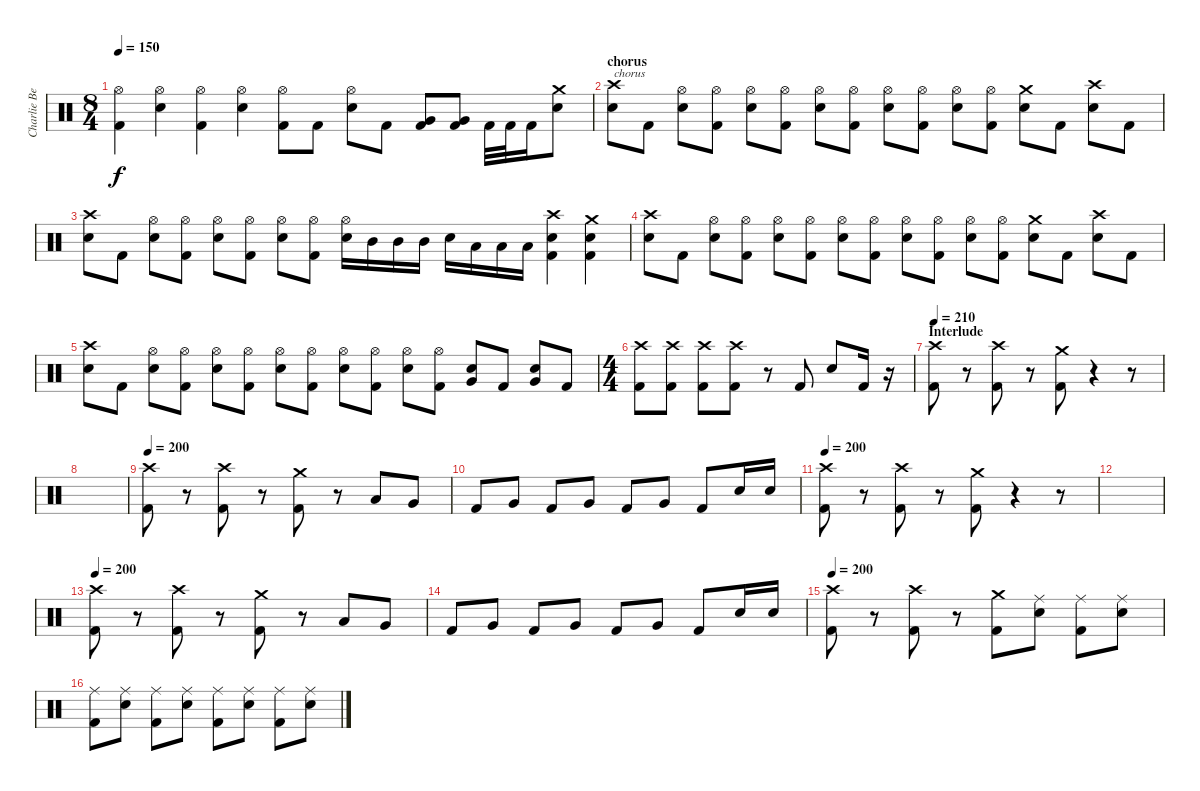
\track ("Charlie Benante" "Charlie Be") {instrument percussion}
\staff {score}
\articulation defaults
\ts (8 4)
\tempo 150
\clef neutral
\ks c
("Hi-Hat (open)" "Kick (hit) 2").4{dy f} ("Hi-Hat (open)" "Electric Snare (hit)").4 ("Hi-Hat (open)" "Kick (hit) 2").4 ("Hi-Hat (open)" "Electric Snare (hit)").4 ("Hi-Hat (open)" "Kick (hit) 2").8 "Kick (hit) 2".8 ("Hi-Hat (open)" "Electric Snare (hit)").8 "Kick (hit) 2".8 ("Very Low Tom (hit)" "Kick (hit) 2").8 ("Very Low Tom (hit)" "Kick (hit) 2").8 "Kick (hit) 2".32 "Kick (hit) 2".32 "Kick (hit) 2".16 ("Crash medium (hit)" "Electric Snare (hit)").8 |
\section ("" "chorus")
("Crash high (hit)" "Electric Snare (hit)").8{txt "chorus"} "Kick (hit) 2".8 ("Hi-Hat (open)" "Electric Snare (hit)").8 ("Hi-Hat (open)" "Kick (hit) 2").8 ("Hi-Hat (open)" "Electric Snare (hit)").8 ("Hi-Hat (open)" "Kick (hit) 2").8 ("Hi-Hat (open)" "Electric Snare (hit)").8 ("Hi-Hat (open)" "Kick (hit) 2").8 ("Hi-Hat (open)" "Electric Snare (hit)").8 ("Hi-Hat (open)" "Kick (hit) 2").8 ("Hi-Hat (open)" "Electric Snare (hit)").8 ("Hi-Hat (open)" "Kick (hit) 2").8 ("Crash medium (hit)" "Electric Snare (hit)").8 "Kick (hit) 2".8 ("Crash high (hit)" "Electric Snare (hit)").8 "Kick (hit) 2".8 |
("Crash high (hit)" "Electric Snare (hit)").8 "Kick (hit) 2".8 ("Hi-Hat (open)" "Electric Snare (hit)").8 ("Hi-Hat (open)" "Kick (hit) 2").8 ("Hi-Hat (open)" "Electric Snare (hit)").8 ("Hi-Hat (open)" "Kick (hit) 2").8 ("Hi-Hat (open)" "Electric Snare (hit)").8 ("Hi-Hat (open)" "Kick (hit) 2").8 ("Hi-Hat (open)" "Electric Snare (hit)").16 "Mid Tom (hit)".16 "Mid Tom (hit)".16 "Mid Tom (hit)".16 "Electric Snare (hit)".16 "Low Tom (hit)".16 "Low Tom (hit)".16 "Low Tom (hit)".16 ("Crash high (hit)" "Electric Snare (hit)" "Kick (hit) 2").4 ("Crash medium (hit)" "Electric Snare (hit)" "Kick (hit) 2").4 |
("Crash high (hit)" "Electric Snare (hit)").8 "Kick (hit) 2".8 ("Hi-Hat (open)" "Electric Snare (hit)").8 ("Hi-Hat (open)" "Kick (hit) 2").8 ("Hi-Hat (open)" "Electric Snare (hit)").8 ("Hi-Hat (open)" "Kick (hit) 2").8 ("Hi-Hat (open)" "Electric Snare (hit)").8 ("Hi-Hat (open)" "Kick (hit) 2").8 ("Hi-Hat (open)" "Electric Snare (hit)").8 ("Hi-Hat (open)" "Kick (hit) 2").8 ("Hi-Hat (open)" "Electric Snare (hit)").8 ("Hi-Hat (open)" "Kick (hit) 2").8 ("Crash medium (hit)" "Electric Snare (hit)").8 "Kick (hit) 2".8 ("Crash high (hit)" "Electric Snare (hit)").8 "Kick (hit) 2".8 |
("Crash high (hit)" "Electric Snare (hit)").8 "Kick (hit) 2".8 ("Hi-Hat (open)" "Electric Snare (hit)").8 ("Hi-Hat (open)" "Kick (hit) 2").8 ("Hi-Hat (open)" "Electric Snare (hit)").8 ("Hi-Hat (open)" "Kick (hit) 2").8 ("Hi-Hat (open)" "Electric Snare (hit)").8 ("Hi-Hat (open)" "Kick (hit) 2").8 ("Hi-Hat (open)" "Electric Snare (hit)").8 ("Hi-Hat (open)" "Kick (hit) 2").8 ("Hi-Hat (open)" "Electric Snare (hit)").8 ("Hi-Hat (open)" "Kick (hit) 2").8 ("Very Low Tom (hit)" "Electric Snare (hit)").8 "Kick (hit) 2".8 ("Very Low Tom (hit)" "Electric Snare (hit)").8 "Kick (hit) 2".8 |
\ts (4 4)
("Crash high (hit)" "Kick (hit) 2").8 ("Crash high (hit)" "Kick (hit) 2").8 ("Crash high (hit)" "Kick (hit) 2").8 ("Crash high (hit)" "Kick (hit) 2").8 r.8 "Kick (hit) 2".8 "Electric Snare (hit)".8 "Kick (hit) 2".16 r.16 |
\section ("" "Interlude")
\tempo 200
\tempo 210
("Crash high (hit)" "Kick (hit) 2").8 r.8 ("Crash high (hit)" "Kick (hit) 2").8 r.8 ("Crash medium (hit)" "Kick (hit) 2").8 r.4 r.8 |
|
\tempo 200
("Crash high (hit)" "Kick (hit) 2").8 r.8 ("Crash high (hit)" "Kick (hit) 2").8 r.8 ("Crash medium (hit)" "Kick (hit) 2").8 r.8 "Low Tom (hit)".8 "Very Low Tom (hit)".8 |
"Kick (hit) 2".8 "Very Low Tom (hit)".8 "Kick (hit) 2".8 "Very Low Tom (hit)".8 "Kick (hit) 2".8 "Very Low Tom (hit)".8 "Kick (hit) 2".8 "Electric Snare (hit)".16 "Electric Snare (hit)".16 |
\tempo 200
("Crash high (hit)" "Kick (hit) 2").8 r.8 ("Crash high (hit)" "Kick (hit) 2").8 r.8 ("Crash medium (hit)" "Kick (hit) 2").8 r.4 r.8 |
|
\tempo 200
("Crash high (hit)" "Kick (hit) 2").8 r.8 ("Crash high (hit)" "Kick (hit) 2").8 r.8 ("Crash medium (hit)" "Kick (hit) 2").8 r.8 "Low Tom (hit)".8 "Very Low Tom (hit)".8 |
"Kick (hit) 2".8 "Very Low Tom (hit)".8 "Kick (hit) 2".8 "Very Low Tom (hit)".8 "Kick (hit) 2".8 "Very Low Tom (hit)".8 "Kick (hit) 2".8 "Electric Snare (hit)".16 "Electric Snare (hit)".16 |
\tempo 200
("Crash high (hit)" "Kick (hit) 2").8 r.8 ("Crash high (hit)" "Kick (hit) 2").8 r.8 ("Crash medium (hit)" "Kick (hit) 2").8 ("Ride (middle)" "Electric Snare (hit)").8 ("Ride (middle)" "Kick (hit) 2").8 ("Ride (middle)" "Electric Snare (hit)").8 |
("Ride (middle)" "Kick (hit) 2").8 ("Ride (middle)" "Electric Snare (hit)").8 ("Ride (middle)" "Kick (hit) 2").8 ("Ride (middle)" "Electric Snare (hit)").8 ("Ride (middle)" "Kick (hit) 2").8 ("Ride (middle)" "Electric Snare (hit)").8 ("Ride (middle)" "Kick (hit) 2").8 ("Ride (middle)" "Electric Snare (hit)").8
